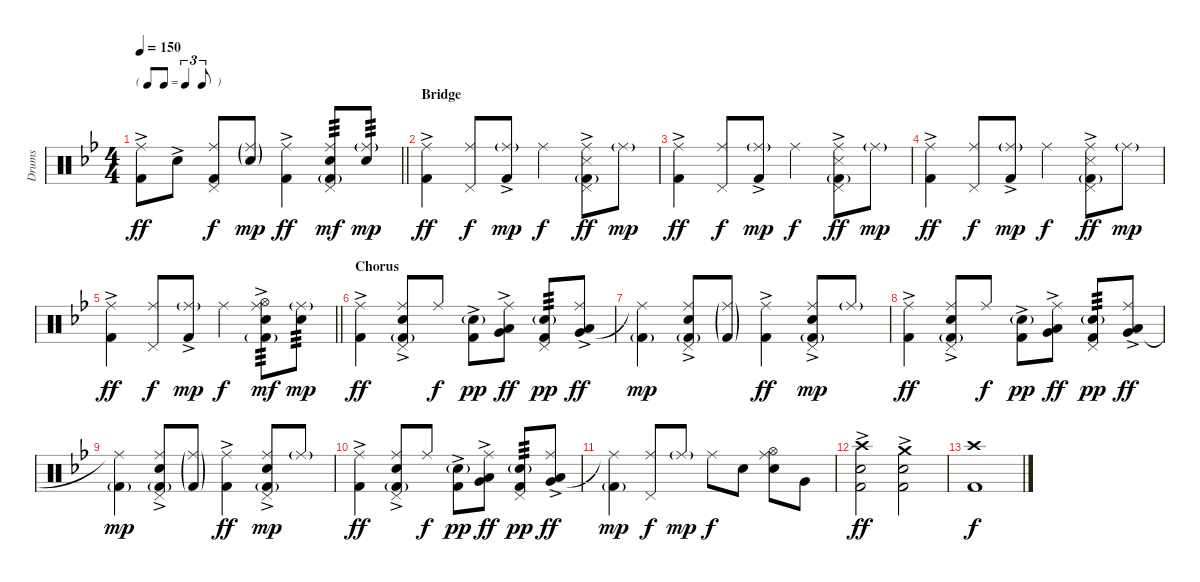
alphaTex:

\track ("Drums" "Drums") {instrument percussion}
\staff {score}
\articulation defaults
\ts (4 4)
\tf triplet8th
\tempo 150
\clef neutral
\barLineRight lightlight
\ks bb
("Kick (hit) 2"{ac} "Ride (middle)").8{dy ff} "Snare (hit) 2"{ac}.8 ("Kick (hit) 2" "Pedal Hi-Hat (hit)" "Ride (middle)").8{dy f} ("Snare (hit) 2"{g} "Ride (middle)"{g}).8{dy mp} ("Kick (hit) 2"{ac} "Ride (middle)").4{dy ff} ("Kick (hit) 2"{g} "Snare (hit) 2" "Pedal Hi-Hat (hit)" "Ride (middle)").8{tp 3 dy mf} ("Snare (hit) 2" "Ride (middle)"{g}).8{tp 3 dy mp} |
\section ("" "Bridge")
("Kick (hit) 2"{ac} "Ride (middle)"{ac}).4{dy ff} ("Pedal Hi-Hat (hit)" "Ride (middle)").8{dy f} ("Kick (hit) 2"{ac} "Ride (middle)"{g}).8{dy mp} "Ride (middle)".4{dy f} ("Kick (hit) 2"{g} "Snare (side stick) 3"{ac} "Pedal Hi-Hat (hit)" "Ride (middle)").8{dy ff} "Ride (middle)"{g}.8{dy mp} |
("Kick (hit) 2"{ac} "Ride (middle)"{ac}).4{dy ff} ("Pedal Hi-Hat (hit)" "Ride (middle)").8{dy f} ("Kick (hit) 2"{ac} "Ride (middle)"{g}).8{dy mp} "Ride (middle)".4{dy f} ("Kick (hit) 2"{g} "Snare (side stick) 3"{ac} "Pedal Hi-Hat (hit)" "Ride (middle)").8{dy ff} "Ride (middle)"{g}.8{dy mp} |
("Kick (hit) 2"{ac} "Ride (middle)"{ac}).4{dy ff} ("Pedal Hi-Hat (hit)" "Ride (middle)").8{dy f} ("Kick (hit) 2"{ac} "Ride (middle)"{g}).8{dy mp} "Ride (middle)".4{dy f} ("Kick (hit) 2"{g} "Snare (side stick) 3"{ac} "Pedal Hi-Hat (hit)" "Ride (middle)").8{dy ff} "Ride (middle)"{g}.8{dy mp} |
\barLineRight lightlight
("Kick (hit) 2"{ac} "Ride (middle)"{ac}).4{dy ff} ("Pedal Hi-Hat (hit)" "Ride (middle)").8{dy f} ("Kick (hit) 2"{ac} "Ride (middle)"{g}).8{dy mp} "Ride (middle)".4{dy f} ("Kick (hit) 2"{g} "Snare (hit) 2"{ac} "Hi-Hat (open)" "Ride (middle)").8{tp 3 dy mf} ("Snare (hit) 2" "Ride (middle)"{g}).8{tp 3 dy mp} |
\section ("" "Chorus")
("Kick (hit) 2"{ac} "Ride (middle)").4{dy ff} ("Kick (hit) 2"{g} "Snare (hit) 2"{ac} "Pedal Hi-Hat (hit)" "Ride (middle)").8 "Ride (middle)".8{dy f} ("Kick (hit) 2"{ac} "Snare (hit) 2"{g}).8{dy pp} ("Low Floor Tom (hit)" "Very Low Tom (hit)" "Ride (middle)"{ac}).8{dy ff} ("Kick (hit) 2" "Snare (hit) 2"{g} "Pedal Hi-Hat (hit)").8{tp 3 dy pp} ("Low Floor Tom (hit)"{ac} "Very Low Tom (hit)" "Ride (middle)"{ac}).8{dy ff} |
("Kick (hit) 2"{g} "Ride (middle)"{t}).4{dy mp} ("Snare (hit) 2"{ac} "Kick (hit) 2"{g} "Pedal Hi-Hat (hit)" "Ride (middle)").8 ("Kick (hit) 2"{g} "Ride (middle)"{g}).8 ("Kick (hit) 2"{ac} "Ride (middle)").4{dy ff} ("Snare (hit) 2"{ac} "Kick (hit) 2"{g} "Pedal Hi-Hat (hit)" "Ride (middle)").8{dy mp} "Ride (middle)"{g}.8 |
("Kick (hit) 2"{ac} "Ride (middle)").4{dy ff} ("Kick (hit) 2"{g} "Snare (hit) 2"{ac} "Pedal Hi-Hat (hit)" "Ride (middle)").8 "Ride (middle)".8{dy f} ("Kick (hit) 2"{ac} "Snare (hit) 2"{g}).8{dy pp} ("Low Floor Tom (hit)" "Very Low Tom (hit)" "Ride (middle)"{ac}).8{dy ff} ("Kick (hit) 2" "Snare (hit) 2"{g} "Pedal Hi-Hat (hit)").8{tp 3 dy pp} ("Low Floor Tom (hit)"{ac} "Very Low Tom (hit)" "Ride (middle)"{ac}).8{dy ff} |
("Kick (hit) 2"{g} "Ride (middle)"{t}).4{dy mp} ("Snare (hit) 2"{ac} "Kick (hit) 2"{g} "Pedal Hi-Hat (hit)" "Ride (middle)").8 ("Kick (hit) 2"{g} "Ride (middle)"{g}).8 ("Kick (hit) 2"{ac} "Ride (middle)").4{dy ff} ("Snare (hit) 2"{ac} "Kick (hit) 2"{g} "Pedal Hi-Hat (hit)" "Ride (middle)").8{dy mp} "Ride (middle)"{g}.8 |
("Kick (hit) 2"{ac} "Ride (middle)").4{dy ff} ("Kick (hit) 2"{g} "Snare (hit) 2"{ac} "Pedal Hi-Hat (hit)" "Ride (middle)").8 "Ride (middle)".8{dy f} ("Kick (hit) 2"{ac} "Snare (hit) 2"{g}).8{dy pp} ("Low Floor Tom (hit)" "Very Low Tom (hit)" "Ride (middle)"{ac}).8{dy ff} ("Kick (hit) 2" "Snare (hit) 2"{g} "Pedal Hi-Hat (hit)").8{tp 3 dy pp} ("Low Floor Tom (hit)"{ac} "Very Low Tom (hit)" "Ride (middle)"{ac}).8{dy ff} |
("Kick (hit) 2"{g} "Ride (middle)"{t}).4{dy mp} ("Pedal Hi-Hat (hit)" "Ride (middle)").8{dy f} "Ride (middle)"{g}.8{dy mp} "Ride (middle)".8{dy f} "Snare (hit) 2".8 ("Snare (hit) 2" "Hi-Hat (open)" "Ride (middle)").8 "Very Low Tom (hit)".8 |
("Kick (hit) 2"{ac} "Snare (hit) 2" "Crash high (hit)").2{dy ff} ("Kick (hit) 2"{ac} "Snare (hit) 2" "Crash medium (hit)").2 |
("Kick (hit) 2" "Crash high (hit)").1{dy f}
